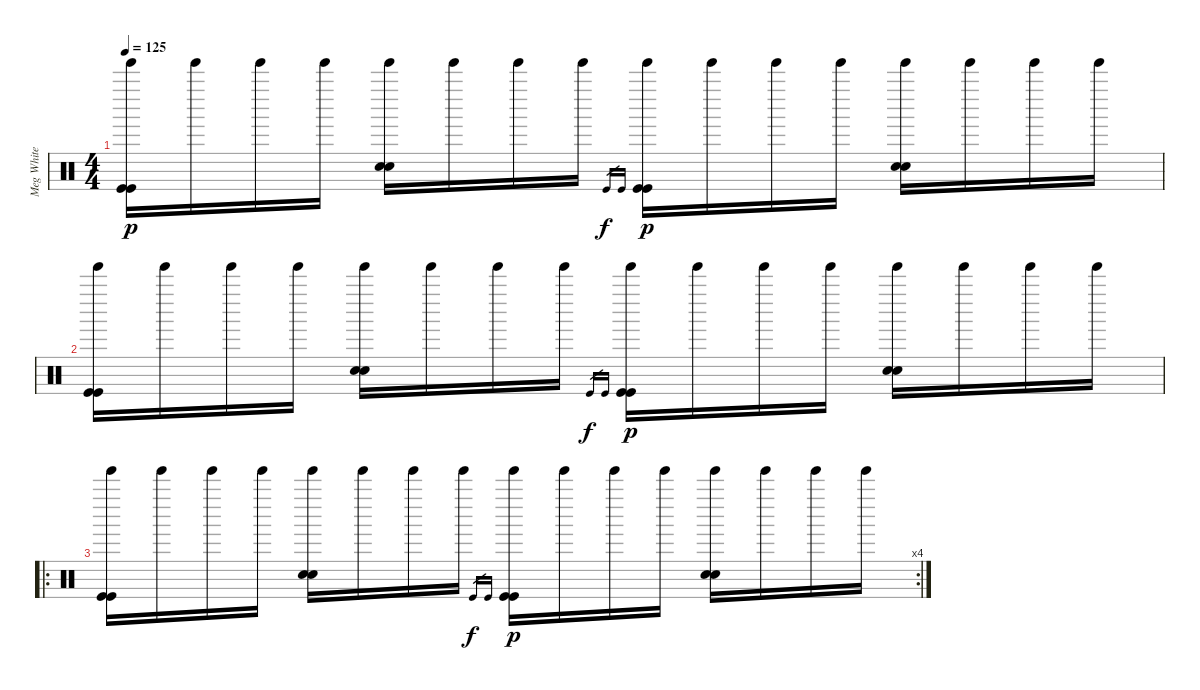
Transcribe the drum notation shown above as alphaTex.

\track ("Meg White" "Meg White") {instrument percussion}
\staff {score}
\articulation defaults
\ts (4 4)
\tempo 125
\clef neutral
\ks c
("Tinkle Bell (hit)" "Kick (hit)" "Kick (hit)").16{dy p} "Tinkle Bell (hit)".16 "Tinkle Bell (hit)".16 "Tinkle Bell (hit)".16 ("Tinkle Bell (hit)" "Snare (hit) 2" "Snare (hit) 2").16 "Tinkle Bell (hit)".16 "Tinkle Bell (hit)".16 "Tinkle Bell (hit)".16 "Kick (hit)".16{gr dy f} "Kick (hit)".16{gr} ("Tinkle Bell (hit)" "Kick (hit)" "Kick (hit)").16{dy p} "Tinkle Bell (hit)".16 "Tinkle Bell (hit)".16 "Tinkle Bell (hit)".16 ("Tinkle Bell (hit)" "Snare (hit) 2" "Snare (hit) 2").16 "Tinkle Bell (hit)".16 "Tinkle Bell (hit)".16 "Tinkle Bell (hit)".16 |
("Tinkle Bell (hit)" "Kick (hit)" "Kick (hit)").16 "Tinkle Bell (hit)".16 "Tinkle Bell (hit)".16 "Tinkle Bell (hit)".16 ("Tinkle Bell (hit)" "Snare (hit) 2" "Snare (hit) 2").16 "Tinkle Bell (hit)".16 "Tinkle Bell (hit)".16 "Tinkle Bell (hit)".16 "Kick (hit)".16{gr dy f} "Kick (hit)".16{gr} ("Tinkle Bell (hit)" "Kick (hit)" "Kick (hit)").16{dy p} "Tinkle Bell (hit)".16 "Tinkle Bell (hit)".16 "Tinkle Bell (hit)".16 ("Tinkle Bell (hit)" "Snare (hit) 2" "Snare (hit) 2").16 "Tinkle Bell (hit)".16 "Tinkle Bell (hit)".16 "Tinkle Bell (hit)".16 |
\ro
\rc 4
("Tinkle Bell (hit)" "Kick (hit)" "Kick (hit)").16 "Tinkle Bell (hit)".16 "Tinkle Bell (hit)".16 "Tinkle Bell (hit)".16 ("Tinkle Bell (hit)" "Snare (hit) 2" "Snare (hit) 2").16 "Tinkle Bell (hit)".16 "Tinkle Bell (hit)".16 "Tinkle Bell (hit)".16 "Kick (hit)".16{gr dy f} "Kick (hit)".16{gr} ("Tinkle Bell (hit)" "Kick (hit)" "Kick (hit)").16{dy p} "Tinkle Bell (hit)".16 "Tinkle Bell (hit)".16 "Tinkle Bell (hit)".16 ("Tinkle Bell (hit)" "Snare (hit) 2" "Snare (hit) 2").16 "Tinkle Bell (hit)".16 "Tinkle Bell (hit)".16 "Tinkle Bell (hit)".16
